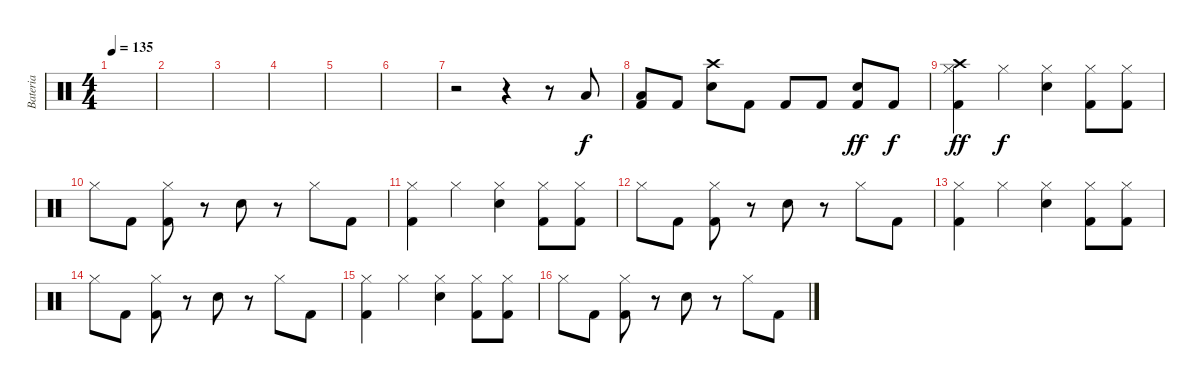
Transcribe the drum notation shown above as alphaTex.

\track ("Bateria" "Bateria") {instrument percussion}
\staff {score}
\articulation defaults
\ts (4 4)
\tempo 135
\clef neutral
\ks c
|
|
|
|
|
|
r.2 r.4 r.8 "Low Tom (hit)".8 |
("Low Tom (hit)" "Kick (hit) 2").8 "Kick (hit) 2".8{dy f} ("Snare (hit) 2" "Crash high (hit)").8 "Kick (hit) 2".8 "Kick (hit) 2".8 "Kick (hit) 2".8 ("Snare (hit) 2" "Kick (hit) 2").8{dy ff} "Kick (hit) 2".8{dy f} |
("Kick (hit) 2" "Hi-Hat (closed)" "Crash high (hit)").4{dy ff} "Hi-Hat (closed)".4{dy f} ("Snare (hit) 2" "Hi-Hat (closed)").4 ("Kick (hit) 2" "Hi-Hat (closed)").8 ("Kick (hit) 2" "Hi-Hat (closed)").8 |
"Hi-Hat (closed)".8 "Kick (hit) 2".8 ("Kick (hit) 2" "Hi-Hat (closed)").8 r.8 "Snare (hit) 2".8 r.8 "Hi-Hat (closed)".8 "Kick (hit) 2".8 |
("Kick (hit) 2" "Hi-Hat (closed)").4 "Hi-Hat (closed)".4 ("Snare (hit) 2" "Hi-Hat (closed)").4 ("Kick (hit) 2" "Hi-Hat (closed)").8 ("Kick (hit) 2" "Hi-Hat (closed)").8 |
"Hi-Hat (closed)".8 "Kick (hit) 2".8 ("Kick (hit) 2" "Hi-Hat (closed)").8 r.8 "Snare (hit) 2".8 r.8 "Hi-Hat (closed)".8 "Kick (hit) 2".8 |
("Kick (hit) 2" "Hi-Hat (closed)").4 "Hi-Hat (closed)".4 ("Snare (hit) 2" "Hi-Hat (closed)").4 ("Kick (hit) 2" "Hi-Hat (closed)").8 ("Kick (hit) 2" "Hi-Hat (closed)").8 |
"Hi-Hat (closed)".8 "Kick (hit) 2".8 ("Kick (hit) 2" "Hi-Hat (closed)").8 r.8 "Snare (hit) 2".8 r.8 "Hi-Hat (closed)".8 "Kick (hit) 2".8 |
("Kick (hit) 2" "Hi-Hat (closed)").4 "Hi-Hat (closed)".4 ("Snare (hit) 2" "Hi-Hat (closed)").4 ("Kick (hit) 2" "Hi-Hat (closed)").8 ("Kick (hit) 2" "Hi-Hat (closed)").8 |
"Hi-Hat (closed)".8 "Kick (hit) 2".8 ("Kick (hit) 2" "Hi-Hat (closed)").8 r.8 "Snare (hit) 2".8 r.8 "Hi-Hat (closed)".8 "Kick (hit) 2".8
